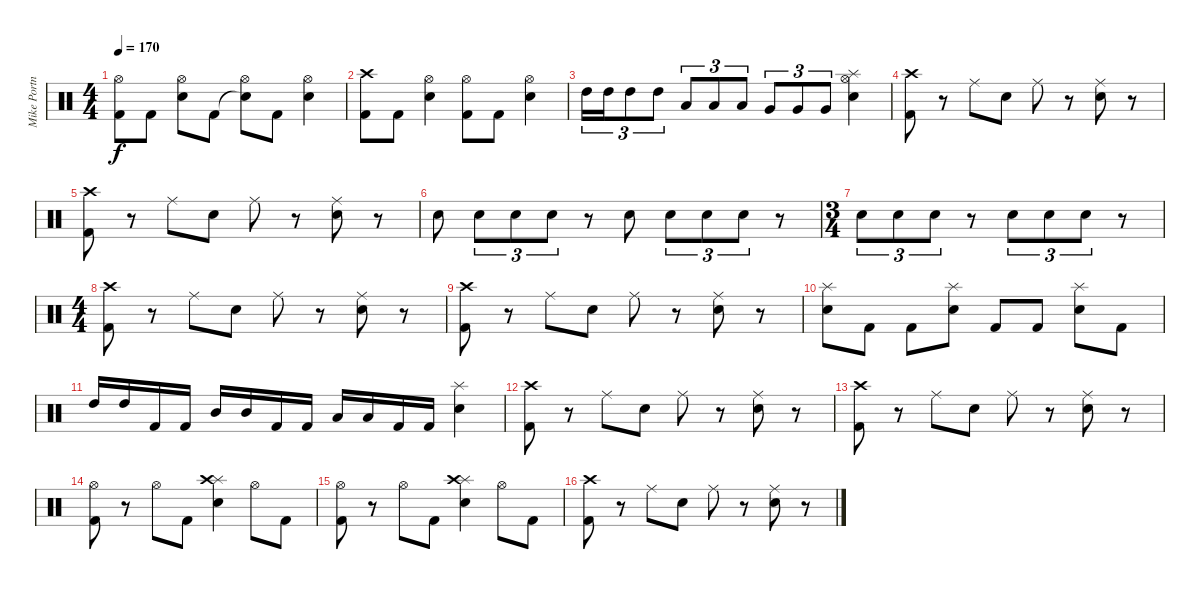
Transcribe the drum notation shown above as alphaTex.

\track ("Mike Portnoy" "Mike Portn") {instrument percussion}
\staff {score}
\articulation defaults
\ts (4 4)
\tempo 170
\clef neutral
\ks c
("Kick (hit) 2" "Hi-Hat (open)").8{dy f} "Kick (hit) 2".8 ("Electric Snare (hit)" "Hi-Hat (open)").8 "Kick (hit) 2".8 ("Snare (hit)"{t} "Hi-Hat (open)").8 "Kick (hit) 2".8 ("Electric Snare (hit)" "Hi-Hat (open)").4 |
("Kick (hit) 2" "Crash high (hit)").8 "Kick (hit) 2".8 ("Electric Snare (hit)" "Hi-Hat (open)").4 ("Kick (hit) 2" "Hi-Hat (open)").8 "Kick (hit) 2".8 ("Electric Snare (hit)" "Hi-Hat (open)").4 |
"High Tom (hit)".16{tu (3 2)} "High Tom (hit)".16{tu (3 2)} "High Tom (hit)".8{tu (3 2)} "High Tom (hit)".8{tu (3 2)} "Low Tom (hit)".8{tu (3 2)} "Low Tom (hit)".8{tu (3 2)} "Low Tom (hit)".8{tu (3 2)} "Very Low Tom (hit)".8{tu (3 2)} "Very Low Tom (hit)".8{tu (3 2)} "Very Low Tom (hit)".8{tu (3 2)} ("Electric Snare (hit)" "Hi-Hat (open)" "Splash (hit)").4 |
("Kick (hit) 2" "Crash high (hit)").8 r.8 "Ride (middle)".8 "Electric Snare (hit)".8 "Ride (middle)".8 r.8 ("Electric Snare (hit)" "Ride (middle)").8 r.8 |
("Kick (hit) 2" "Crash high (hit)").8 r.8 "Ride (middle)".8 "Electric Snare (hit)".8 "Ride (middle)".8 r.8 ("Electric Snare (hit)" "Ride (middle)").8 r.8 |
"Electric Snare (hit)".8 "Electric Snare (hit)".8{tu (3 2)} "Electric Snare (hit)".8{tu (3 2)} "Electric Snare (hit)".8{tu (3 2)} r.8 "Electric Snare (hit)".8 "Electric Snare (hit)".8{tu (3 2)} "Electric Snare (hit)".8{tu (3 2)} "Electric Snare (hit)".8{tu (3 2)} r.8 |
\ts (3 4)
"Electric Snare (hit)".8{tu (3 2)} "Electric Snare (hit)".8{tu (3 2)} "Electric Snare (hit)".8{tu (3 2)} r.8 "Electric Snare (hit)".8{tu (3 2)} "Electric Snare (hit)".8{tu (3 2)} "Electric Snare (hit)".8{tu (3 2)} r.8 |
\ts (4 4)
("Kick (hit) 2" "Crash high (hit)").8 r.8 "Ride (middle)".8 "Electric Snare (hit)".8 "Ride (middle)".8 r.8 ("Electric Snare (hit)" "Ride (middle)").8 r.8 |
("Kick (hit) 2" "Crash high (hit)").8 r.8 "Ride (middle)".8 "Electric Snare (hit)".8 "Ride (middle)".8 r.8 ("Electric Snare (hit)" "Ride (middle)").8 r.8 |
("Electric Snare (hit)" "Splash (hit)").8 "Kick (hit) 2".8 "Kick (hit) 2".8 ("Electric Snare (hit)" "Splash (hit)").8 "Kick (hit) 2".8 "Kick (hit) 2".8 ("Electric Snare (hit)" "Splash (hit)").8 "Kick (hit) 2".8 |
"High Tom (hit)".16 "High Tom (hit)".16 "Kick (hit) 2".16 "Kick (hit) 2".16 "Mid Tom (hit)".16 "Mid Tom (hit)".16 "Kick (hit) 2".16 "Kick (hit) 2".16 "Low Tom (hit)".16 "Low Tom (hit)".16 "Kick (hit) 2".16 "Kick (hit) 2".16 ("Electric Snare (hit)" "Splash (hit)").4 |
("Kick (hit) 2" "Crash high (hit)").8 r.8 "Ride (middle)".8 "Electric Snare (hit)".8 "Ride (middle)".8 r.8 ("Electric Snare (hit)" "Ride (middle)").8 r.8 |
("Kick (hit) 2" "Crash high (hit)").8 r.8 "Ride (middle)".8 "Electric Snare (hit)".8 "Ride (middle)".8 r.8 ("Electric Snare (hit)" "Ride (middle)").8 r.8 |
("Kick (hit) 2" "Hi-Hat (open)").8 r.8 "Hi-Hat (open)".8 "Kick (hit) 2".8 ("Electric Snare (hit)" "Splash (hit)" "Crash high (hit)").4 "Hi-Hat (open)".8 "Kick (hit) 2".8 |
("Kick (hit) 2" "Hi-Hat (open)").8 r.8 "Hi-Hat (open)".8 "Kick (hit) 2".8 ("Electric Snare (hit)" "Splash (hit)" "Crash high (hit)").4 "Hi-Hat (open)".8 "Kick (hit) 2".8 |
("Kick (hit) 2" "Crash high (hit)").8 r.8 "Ride (middle)".8 "Electric Snare (hit)".8 "Ride (middle)".8 r.8 ("Electric Snare (hit)" "Ride (middle)").8 r.8
